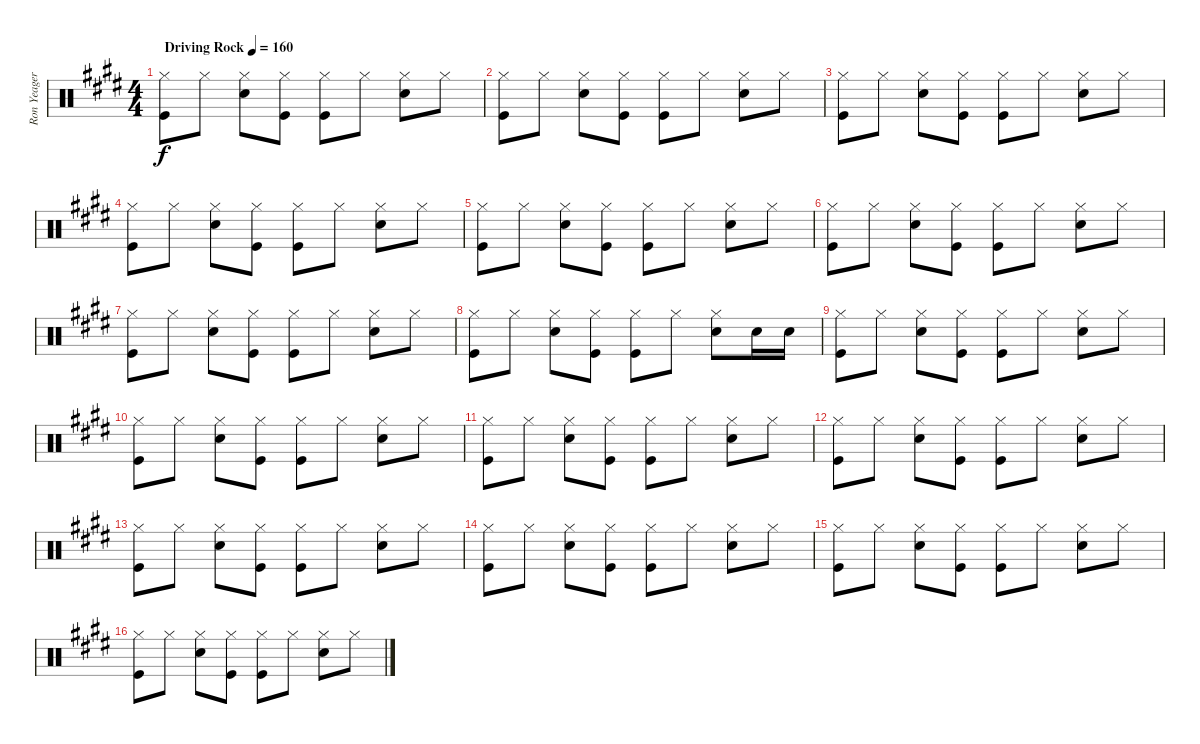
\track ("Ron Yeager Drums" "Ron Yeager") {instrument percussion}
\staff {score}
\articulation defaults
\ts (4 4)
\tempo (160 "Driving Rock")
\clef neutral
\ks e
("Hi-Hat (closed)" "Kick (hit)").8{dy f} "Hi-Hat (closed)".8 ("Hi-Hat (closed)" "Snare (hit) 2").8 ("Hi-Hat (closed)" "Kick (hit)").8 ("Hi-Hat (closed)" "Kick (hit)").8 "Hi-Hat (closed)".8 ("Hi-Hat (closed)" "Snare (hit) 2").8 "Hi-Hat (closed)".8 |
("Hi-Hat (closed)" "Kick (hit)").8 "Hi-Hat (closed)".8 ("Hi-Hat (closed)" "Snare (hit) 2").8 ("Hi-Hat (closed)" "Kick (hit)").8 ("Hi-Hat (closed)" "Kick (hit)").8 "Hi-Hat (closed)".8 ("Hi-Hat (closed)" "Snare (hit) 2").8 "Hi-Hat (closed)".8 |
("Hi-Hat (closed)" "Kick (hit)").8 "Hi-Hat (closed)".8 ("Hi-Hat (closed)" "Snare (hit) 2").8 ("Hi-Hat (closed)" "Kick (hit)").8 ("Hi-Hat (closed)" "Kick (hit)").8 "Hi-Hat (closed)".8 ("Hi-Hat (closed)" "Snare (hit) 2").8 "Hi-Hat (closed)".8 |
("Hi-Hat (closed)" "Kick (hit)").8 "Hi-Hat (closed)".8 ("Hi-Hat (closed)" "Snare (hit) 2").8 ("Hi-Hat (closed)" "Kick (hit)").8 ("Hi-Hat (closed)" "Kick (hit)").8 "Hi-Hat (closed)".8 ("Hi-Hat (closed)" "Snare (hit) 2").8 "Hi-Hat (closed)".8 |
("Hi-Hat (closed)" "Kick (hit)").8 "Hi-Hat (closed)".8 ("Hi-Hat (closed)" "Snare (hit) 2").8 ("Hi-Hat (closed)" "Kick (hit)").8 ("Hi-Hat (closed)" "Kick (hit)").8 "Hi-Hat (closed)".8 ("Hi-Hat (closed)" "Snare (hit) 2").8 "Hi-Hat (closed)".8 |
("Hi-Hat (closed)" "Kick (hit)").8 "Hi-Hat (closed)".8 ("Hi-Hat (closed)" "Snare (hit) 2").8 ("Hi-Hat (closed)" "Kick (hit)").8 ("Hi-Hat (closed)" "Kick (hit)").8 "Hi-Hat (closed)".8 ("Hi-Hat (closed)" "Snare (hit) 2").8 "Hi-Hat (closed)".8 |
("Hi-Hat (closed)" "Kick (hit)").8 "Hi-Hat (closed)".8 ("Hi-Hat (closed)" "Snare (hit) 2").8 ("Hi-Hat (closed)" "Kick (hit)").8 ("Hi-Hat (closed)" "Kick (hit)").8 "Hi-Hat (closed)".8 ("Hi-Hat (closed)" "Snare (hit) 2").8 "Hi-Hat (closed)".8 |
("Hi-Hat (closed)" "Kick (hit)").8 "Hi-Hat (closed)".8 ("Hi-Hat (closed)" "Snare (hit) 2").8 ("Hi-Hat (closed)" "Kick (hit)").8 ("Hi-Hat (closed)" "Kick (hit)").8 "Hi-Hat (closed)".8 ("Hi-Hat (closed)" "Snare (hit) 2").8 "Snare (hit) 2".16 "Snare (hit) 2".16 |
("Hi-Hat (closed)" "Kick (hit)").8 "Hi-Hat (closed)".8 ("Hi-Hat (closed)" "Snare (hit) 2").8 ("Hi-Hat (closed)" "Kick (hit)").8 ("Hi-Hat (closed)" "Kick (hit)").8 "Hi-Hat (closed)".8 ("Hi-Hat (closed)" "Snare (hit) 2").8 "Hi-Hat (closed)".8 |
("Hi-Hat (closed)" "Kick (hit)").8 "Hi-Hat (closed)".8 ("Hi-Hat (closed)" "Snare (hit) 2").8 ("Hi-Hat (closed)" "Kick (hit)").8 ("Hi-Hat (closed)" "Kick (hit)").8 "Hi-Hat (closed)".8 ("Hi-Hat (closed)" "Snare (hit) 2").8 "Hi-Hat (closed)".8 |
("Hi-Hat (closed)" "Kick (hit)").8 "Hi-Hat (closed)".8 ("Hi-Hat (closed)" "Snare (hit) 2").8 ("Hi-Hat (closed)" "Kick (hit)").8 ("Hi-Hat (closed)" "Kick (hit)").8 "Hi-Hat (closed)".8 ("Hi-Hat (closed)" "Snare (hit) 2").8 "Hi-Hat (closed)".8 |
("Hi-Hat (closed)" "Kick (hit)").8 "Hi-Hat (closed)".8 ("Hi-Hat (closed)" "Snare (hit) 2").8 ("Hi-Hat (closed)" "Kick (hit)").8 ("Hi-Hat (closed)" "Kick (hit)").8 "Hi-Hat (closed)".8 ("Hi-Hat (closed)" "Snare (hit) 2").8 "Hi-Hat (closed)".8 |
("Hi-Hat (closed)" "Kick (hit)").8 "Hi-Hat (closed)".8 ("Hi-Hat (closed)" "Snare (hit) 2").8 ("Hi-Hat (closed)" "Kick (hit)").8 ("Hi-Hat (closed)" "Kick (hit)").8 "Hi-Hat (closed)".8 ("Hi-Hat (closed)" "Snare (hit) 2").8 "Hi-Hat (closed)".8 |
("Hi-Hat (closed)" "Kick (hit)").8 "Hi-Hat (closed)".8 ("Hi-Hat (closed)" "Snare (hit) 2").8 ("Hi-Hat (closed)" "Kick (hit)").8 ("Hi-Hat (closed)" "Kick (hit)").8 "Hi-Hat (closed)".8 ("Hi-Hat (closed)" "Snare (hit) 2").8 "Hi-Hat (closed)".8 |
("Hi-Hat (closed)" "Kick (hit)").8 "Hi-Hat (closed)".8 ("Hi-Hat (closed)" "Snare (hit) 2").8 ("Hi-Hat (closed)" "Kick (hit)").8 ("Hi-Hat (closed)" "Kick (hit)").8 "Hi-Hat (closed)".8 ("Hi-Hat (closed)" "Snare (hit) 2").8 "Hi-Hat (closed)".8 |
("Hi-Hat (closed)" "Kick (hit)").8 "Hi-Hat (closed)".8 ("Hi-Hat (closed)" "Snare (hit) 2").8 ("Hi-Hat (closed)" "Kick (hit)").8 ("Hi-Hat (closed)" "Kick (hit)").8 "Hi-Hat (closed)".8 ("Hi-Hat (closed)" "Snare (hit) 2").8 "Hi-Hat (closed)".8
